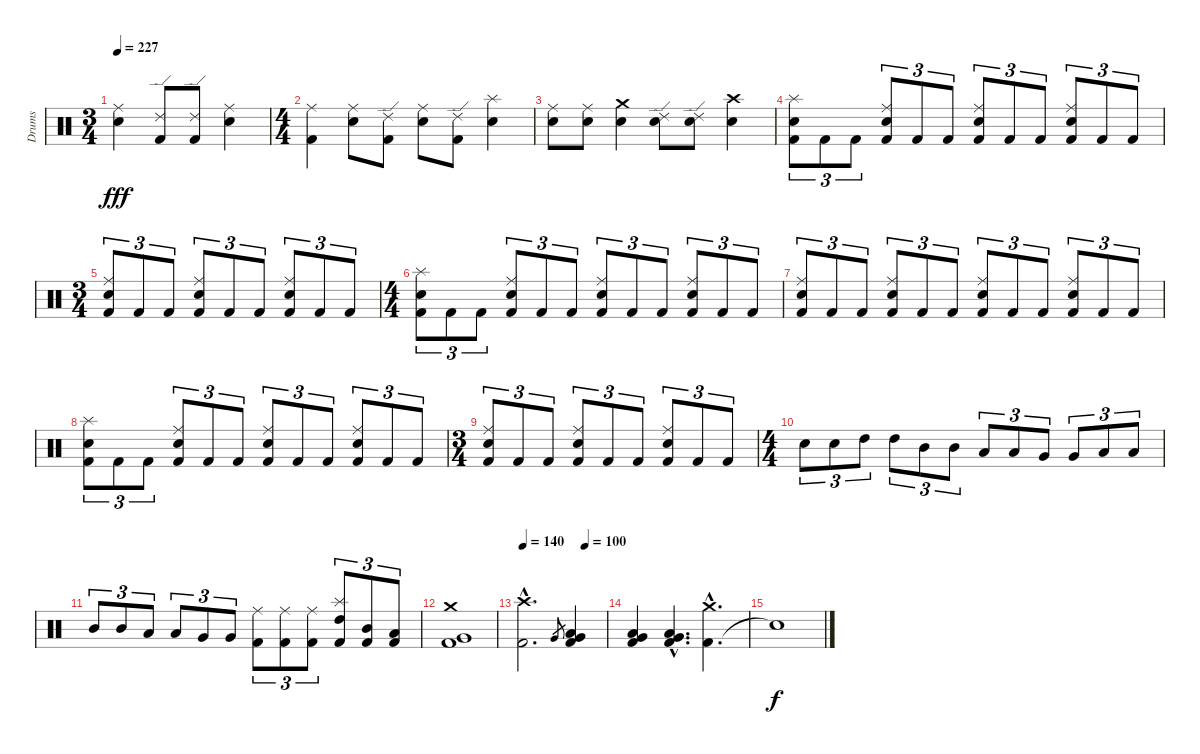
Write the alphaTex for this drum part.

\track ("Drums" "Drums") {instrument percussion}
\staff {score}
\articulation defaults
\ts (3 4)
\tempo 227
\clef neutral
\ks c
("Electric Snare (hit)" "Ride (middle)").4{dy fff} ("Kick (hit) 2" "Ride (edge) 2").8 ("Kick (hit) 2" "Ride (edge) 2").8 ("Electric Snare (hit)" "Ride (middle)").4 |
\ts (4 4)
("Kick (hit) 2" "Ride (middle)").4 ("Electric Snare (hit)" "Ride (middle)").8 ("Kick (hit) 2" "Ride (edge) 2").8 ("Electric Snare (hit)" "Ride (middle)").8 ("Kick (hit) 2" "Ride (edge) 2").8 ("Electric Snare (hit)" "Splash (hit)").4 |
("Electric Snare (hit)" "Ride (middle)").8 ("Electric Snare (hit)" "Ride (middle)").8 ("Electric Snare (hit)" "Crash medium (hit)").4 ("Electric Snare (hit)" "Ride (edge) 2").8 ("Electric Snare (hit)" "Ride (edge) 2").8 ("Electric Snare (hit)" "Crash high (hit)").4 |
("Kick (hit) 2" "Electric Snare (hit)" "Splash (hit)").8{tu (3 2)} "Kick (hit) 2".8{tu (3 2)} "Kick (hit) 2".8{tu (3 2)} ("Kick (hit) 2" "Electric Snare (hit)" "Ride (middle)").8{tu (3 2)} "Kick (hit) 2".8{tu (3 2)} "Kick (hit) 2".8{tu (3 2)} ("Kick (hit) 2" "Electric Snare (hit)" "Ride (middle)").8{tu (3 2)} "Kick (hit) 2".8{tu (3 2)} "Kick (hit) 2".8{tu (3 2)} ("Kick (hit) 2" "Electric Snare (hit)" "Ride (middle)").8{tu (3 2)} "Kick (hit) 2".8{tu (3 2)} "Kick (hit) 2".8{tu (3 2)} |
\ts (3 4)
("Kick (hit) 2" "Electric Snare (hit)" "Ride (middle)").8{tu (3 2)} "Kick (hit) 2".8{tu (3 2)} "Kick (hit) 2".8{tu (3 2)} ("Kick (hit) 2" "Electric Snare (hit)" "Ride (middle)").8{tu (3 2)} "Kick (hit) 2".8{tu (3 2)} "Kick (hit) 2".8{tu (3 2)} ("Kick (hit) 2" "Electric Snare (hit)" "Ride (middle)").8{tu (3 2)} "Kick (hit) 2".8{tu (3 2)} "Kick (hit) 2".8{tu (3 2)} |
\ts (4 4)
("Kick (hit) 2" "Electric Snare (hit)" "Splash (hit)").8{tu (3 2)} "Kick (hit) 2".8{tu (3 2)} "Kick (hit) 2".8{tu (3 2)} ("Kick (hit) 2" "Electric Snare (hit)" "Ride (middle)").8{tu (3 2)} "Kick (hit) 2".8{tu (3 2)} "Kick (hit) 2".8{tu (3 2)} ("Kick (hit) 2" "Electric Snare (hit)" "Ride (middle)").8{tu (3 2)} "Kick (hit) 2".8{tu (3 2)} "Kick (hit) 2".8{tu (3 2)} ("Kick (hit) 2" "Electric Snare (hit)" "Ride (middle)").8{tu (3 2)} "Kick (hit) 2".8{tu (3 2)} "Kick (hit) 2".8{tu (3 2)} |
("Kick (hit) 2" "Electric Snare (hit)" "Ride (middle)").8{tu (3 2)} "Kick (hit) 2".8{tu (3 2)} "Kick (hit) 2".8{tu (3 2)} ("Kick (hit) 2" "Electric Snare (hit)" "Ride (middle)").8{tu (3 2)} "Kick (hit) 2".8{tu (3 2)} "Kick (hit) 2".8{tu (3 2)} ("Kick (hit) 2" "Electric Snare (hit)" "Ride (middle)").8{tu (3 2)} "Kick (hit) 2".8{tu (3 2)} "Kick (hit) 2".8{tu (3 2)} ("Kick (hit) 2" "Electric Snare (hit)" "Ride (middle)").8{tu (3 2)} "Kick (hit) 2".8{tu (3 2)} "Kick (hit) 2".8{tu (3 2)} |
("Kick (hit) 2" "Electric Snare (hit)" "Splash (hit)").8{tu (3 2)} "Kick (hit) 2".8{tu (3 2)} "Kick (hit) 2".8{tu (3 2)} ("Kick (hit) 2" "Electric Snare (hit)" "Ride (middle)").8{tu (3 2)} "Kick (hit) 2".8{tu (3 2)} "Kick (hit) 2".8{tu (3 2)} ("Kick (hit) 2" "Electric Snare (hit)" "Ride (middle)").8{tu (3 2)} "Kick (hit) 2".8{tu (3 2)} "Kick (hit) 2".8{tu (3 2)} ("Kick (hit) 2" "Electric Snare (hit)" "Ride (middle)").8{tu (3 2)} "Kick (hit) 2".8{tu (3 2)} "Kick (hit) 2".8{tu (3 2)} |
\ts (3 4)
("Kick (hit) 2" "Electric Snare (hit)" "Ride (middle)").8{tu (3 2)} "Kick (hit) 2".8{tu (3 2)} "Kick (hit) 2".8{tu (3 2)} ("Kick (hit) 2" "Electric Snare (hit)" "Ride (middle)").8{tu (3 2)} "Kick (hit) 2".8{tu (3 2)} "Kick (hit) 2".8{tu (3 2)} ("Kick (hit) 2" "Electric Snare (hit)" "Ride (middle)").8{tu (3 2)} "Kick (hit) 2".8{tu (3 2)} "Kick (hit) 2".8{tu (3 2)} |
\ts (4 4)
"Electric Snare (hit)".8{tu (3 2)} "Electric Snare (hit)".8{tu (3 2)} "High Tom (hit)".8{tu (3 2)} "High Tom (hit)".8{tu (3 2)} "Mid Tom (hit)".8{tu (3 2)} "Mid Tom (hit)".8{tu (3 2)} "Low Tom (hit)".8{tu (3 2)} "Low Tom (hit)".8{tu (3 2)} "Very Low Tom (hit)".8{tu (3 2)} "Very Low Tom (hit)".8{tu (3 2)} "Low Floor Tom (hit)".8{tu (3 2)} "Low Floor Tom (hit)".8{tu (3 2)} |
"Mid Tom (hit)".8{tu (3 2)} "Mid Tom (hit)".8{tu (3 2)} "Low Tom (hit)".8{tu (3 2)} "Low Tom (hit)".8{tu (3 2)} "Very Low Tom (hit)".8{tu (3 2)} "Very Low Tom (hit)".8{tu (3 2)} ("Kick (hit) 2" "Ride (middle)").8{tu (3 2)} ("Kick (hit) 2" "Ride (middle)").8{tu (3 2)} ("Kick (hit) 2" "Ride (middle)").8{tu (3 2)} ("Kick (hit) 2" "High Tom (hit)" "Splash (hit)").8{tu (3 2)} ("Kick (hit) 2" "Mid Tom (hit)").8{tu (3 2)} ("Kick (hit) 2" "Low Tom (hit)").8{tu (3 2)} |
("Kick (hit) 2" "Very Low Tom (hit)" "Crash medium (hit)").1 |
\tempo 140
\tempo (100 0.75)
("Kick (hit) 2"{hac} "Crash high (hit)"{hac}).2{d} "Very Low Tom (hit)".8{gr} ("Kick (hit) 2" "Low Tom (hit)" "Very Low Tom (hit)").4 |
("Kick (hit) 2" "Low Tom (hit)" "Very Low Tom (hit)").4 ("Kick (hit) 2"{hac} "Low Tom (hit)"{hac} "Very Low Tom (hit)"{hac}).4{d} ("Kick (hit) 2"{hac} "Crash medium (hit)"{hac}).4{d} |
"Snare (hit)"{t}.1{dy f}
